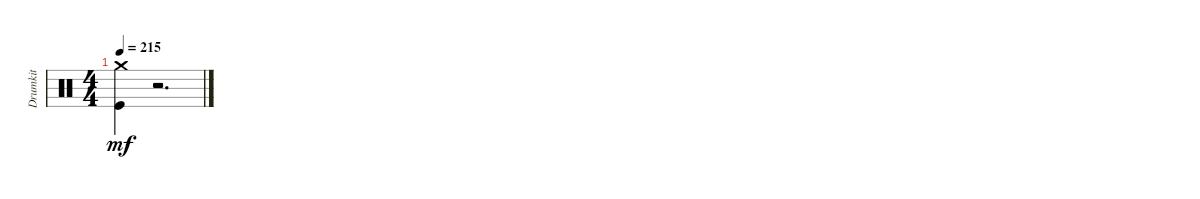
\track ("Drumkit" "Drumkit") {instrument percussion}
\staff {score}
\articulation defaults
\ts (4 4)
\tempo 215
\clef neutral
\ks c
("Kick (hit)" "Crash medium (hit)").4{dy mf} r.2{d}
